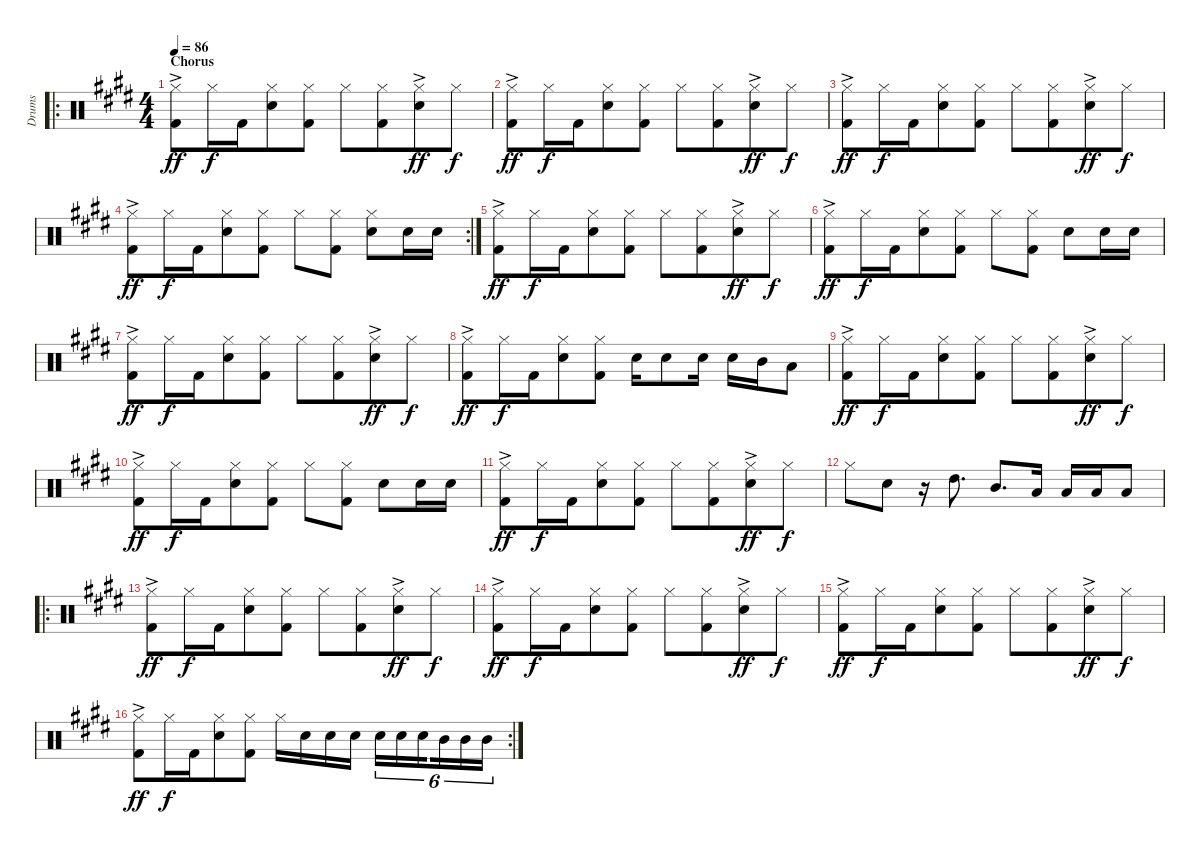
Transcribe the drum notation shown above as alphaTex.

\track ("Drums" "Drums") {instrument percussion}
\staff {score}
\articulation defaults
\ro
\ts (4 4)
\section ("" "Chorus")
\tempo 86
\clef neutral
\ks e
("Hi-Hat (closed)" "Kick (hit) 2"{ac}).8{dy ff} "Hi-Hat (closed)".16{dy f} "Kick (hit) 2".16{beam merge} ("Hi-Hat (closed)" "Electric Snare (hit)").8 ("Hi-Hat (closed)" "Kick (hit) 2").8 "Hi-Hat (closed)".8 ("Hi-Hat (closed)" "Kick (hit) 2").8{beam merge} ("Hi-Hat (closed)" "Electric Snare (hit)"{ac}).8{dy ff} "Hi-Hat (closed)".8{dy f} |
("Hi-Hat (closed)" "Kick (hit) 2"{ac}).8{dy ff} "Hi-Hat (closed)".16{dy f} "Kick (hit) 2".16{beam merge} ("Hi-Hat (closed)" "Electric Snare (hit)").8 ("Hi-Hat (closed)" "Kick (hit) 2").8 "Hi-Hat (closed)".8 ("Hi-Hat (closed)" "Kick (hit) 2").8{beam merge} ("Hi-Hat (closed)" "Electric Snare (hit)"{ac}).8{dy ff} "Hi-Hat (closed)".8{dy f} |
("Hi-Hat (closed)" "Kick (hit) 2"{ac}).8{dy ff} "Hi-Hat (closed)".16{dy f} "Kick (hit) 2".16{beam merge} ("Hi-Hat (closed)" "Electric Snare (hit)").8 ("Hi-Hat (closed)" "Kick (hit) 2").8 "Hi-Hat (closed)".8 ("Hi-Hat (closed)" "Kick (hit) 2").8{beam merge} ("Hi-Hat (closed)" "Electric Snare (hit)"{ac}).8{dy ff} "Hi-Hat (closed)".8{dy f} |
\rc 2
("Hi-Hat (closed)" "Kick (hit) 2"{ac}).8{dy ff} "Hi-Hat (closed)".16{dy f} "Kick (hit) 2".16{beam merge} ("Hi-Hat (closed)" "Electric Snare (hit)").8 ("Hi-Hat (closed)" "Kick (hit) 2").8 "Hi-Hat (closed)".8 ("Hi-Hat (closed)" "Kick (hit) 2").8 ("Hi-Hat (closed)" "Electric Snare (hit)").8 "Electric Snare (hit)".16 "Electric Snare (hit)".16 |
("Hi-Hat (closed)" "Kick (hit) 2"{ac}).8{dy ff} "Hi-Hat (closed)".16{dy f} "Kick (hit) 2".16{beam merge} ("Hi-Hat (closed)" "Electric Snare (hit)").8 ("Hi-Hat (closed)" "Kick (hit) 2").8 "Hi-Hat (closed)".8 ("Hi-Hat (closed)" "Kick (hit) 2").8{beam merge} ("Hi-Hat (closed)" "Electric Snare (hit)"{ac}).8{dy ff} "Hi-Hat (closed)".8{dy f} |
("Hi-Hat (closed)" "Kick (hit) 2"{ac}).8{dy ff} "Hi-Hat (closed)".16{dy f} "Kick (hit) 2".16{beam merge} ("Hi-Hat (closed)" "Electric Snare (hit)").8 ("Hi-Hat (closed)" "Kick (hit) 2").8 "Hi-Hat (closed)".8 ("Hi-Hat (closed)" "Kick (hit) 2").8 "Electric Snare (hit)".8 "Electric Snare (hit)".16 "Electric Snare (hit)".16 |
("Hi-Hat (closed)" "Kick (hit) 2"{ac}).8{dy ff} "Hi-Hat (closed)".16{dy f} "Kick (hit) 2".16{beam merge} ("Hi-Hat (closed)" "Electric Snare (hit)").8 ("Hi-Hat (closed)" "Kick (hit) 2").8 "Hi-Hat (closed)".8 ("Hi-Hat (closed)" "Kick (hit) 2").8{beam merge} ("Hi-Hat (closed)" "Electric Snare (hit)"{ac}).8{dy ff} "Hi-Hat (closed)".8{dy f} |
("Hi-Hat (closed)" "Kick (hit) 2"{ac}).8{dy ff} "Hi-Hat (closed)".16{dy f} "Kick (hit) 2".16{beam merge} ("Hi-Hat (closed)" "Electric Snare (hit)").8 ("Hi-Hat (closed)" "Kick (hit) 2").8 "Electric Snare (hit)".16 "Electric Snare (hit)".8 "Electric Snare (hit)".16 "Electric Snare (hit)".16 "Mid Tom (hit)".16 "Low Tom (hit)".8 |
("Hi-Hat (closed)" "Kick (hit) 2"{ac}).8{dy ff} "Hi-Hat (closed)".16{dy f} "Kick (hit) 2".16{beam merge} ("Hi-Hat (closed)" "Electric Snare (hit)").8 ("Hi-Hat (closed)" "Kick (hit) 2").8 "Hi-Hat (closed)".8 ("Hi-Hat (closed)" "Kick (hit) 2").8{beam merge} ("Hi-Hat (closed)" "Electric Snare (hit)"{ac}).8{dy ff} "Hi-Hat (closed)".8{dy f} |
("Hi-Hat (closed)" "Kick (hit) 2"{ac}).8{dy ff} "Hi-Hat (closed)".16{dy f} "Kick (hit) 2".16{beam merge} ("Hi-Hat (closed)" "Electric Snare (hit)").8 ("Hi-Hat (closed)" "Kick (hit) 2").8 "Hi-Hat (closed)".8 ("Hi-Hat (closed)" "Kick (hit) 2").8 "Electric Snare (hit)".8 "Electric Snare (hit)".16 "Electric Snare (hit)".16 |
("Hi-Hat (closed)" "Kick (hit) 2"{ac}).8{dy ff} "Hi-Hat (closed)".16{dy f} "Kick (hit) 2".16{beam merge} ("Hi-Hat (closed)" "Electric Snare (hit)").8 ("Hi-Hat (closed)" "Kick (hit) 2").8 "Hi-Hat (closed)".8 ("Hi-Hat (closed)" "Kick (hit) 2").8{beam merge} ("Hi-Hat (closed)" "Electric Snare (hit)"{ac}).8{dy ff} "Hi-Hat (closed)".8{dy f} |
"Hi-Hat (closed)".8 "Electric Snare (hit)".8 r.16 "High Tom (hit)".8{d} "Mid Tom (hit)".8{d} "Low Tom (hit)".16 "Low Tom (hit)".16 "Low Tom (hit)".16 "Low Tom (hit)".8 |
\ro
("Hi-Hat (closed)" "Kick (hit) 2"{ac}).8{dy ff} "Hi-Hat (closed)".16{dy f} "Kick (hit) 2".16{beam merge} ("Hi-Hat (closed)" "Electric Snare (hit)").8 ("Hi-Hat (closed)" "Kick (hit) 2").8 "Hi-Hat (closed)".8 ("Hi-Hat (closed)" "Kick (hit) 2").8{beam merge} ("Hi-Hat (closed)" "Electric Snare (hit)"{ac}).8{dy ff} "Hi-Hat (closed)".8{dy f} |
("Hi-Hat (closed)" "Kick (hit) 2"{ac}).8{dy ff} "Hi-Hat (closed)".16{dy f} "Kick (hit) 2".16{beam merge} ("Hi-Hat (closed)" "Electric Snare (hit)").8 ("Hi-Hat (closed)" "Kick (hit) 2").8 "Hi-Hat (closed)".8 ("Hi-Hat (closed)" "Kick (hit) 2").8{beam merge} ("Hi-Hat (closed)" "Electric Snare (hit)"{ac}).8{dy ff} "Hi-Hat (closed)".8{dy f} |
("Hi-Hat (closed)" "Kick (hit) 2"{ac}).8{dy ff} "Hi-Hat (closed)".16{dy f} "Kick (hit) 2".16{beam merge} ("Hi-Hat (closed)" "Electric Snare (hit)").8 ("Hi-Hat (closed)" "Kick (hit) 2").8 "Hi-Hat (closed)".8 ("Hi-Hat (closed)" "Kick (hit) 2").8{beam merge} ("Hi-Hat (closed)" "Electric Snare (hit)"{ac}).8{dy ff} "Hi-Hat (closed)".8{dy f} |
\rc 2
("Hi-Hat (closed)" "Kick (hit) 2"{ac}).8{dy ff} "Hi-Hat (closed)".16{dy f} "Kick (hit) 2".16{beam merge} ("Hi-Hat (closed)" "Electric Snare (hit)").8 ("Hi-Hat (closed)" "Kick (hit) 2").8 "Hi-Hat (closed)".16 "Electric Snare (hit)".16 "Electric Snare (hit)".16 "Electric Snare (hit)".16 "Electric Snare (hit)".16{tu (6 4)} "Electric Snare (hit)".16{tu (6 4)} "Electric Snare (hit)".16{tu (6 4) beam splitsecondary} "Mid Tom (hit)".16{tu (6 4)} "Mid Tom (hit)".16{tu (6 4)} "Mid Tom (hit)".16{tu (6 4)}
